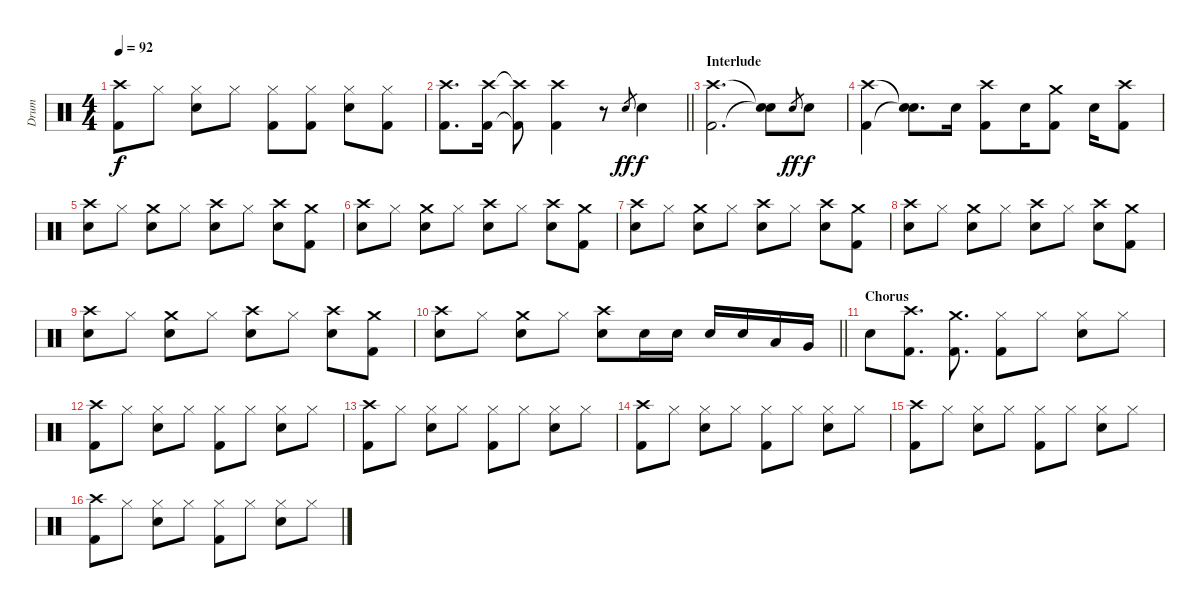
\track ("Drum" "Drum") {instrument percussion}
\staff {score}
\articulation defaults
\ts (4 4)
\tempo 92
\clef neutral
\ks c
("Crash high (hit)" "Kick (hit) 2").8{dy f} "Hi-Hat (closed)".8 ("Hi-Hat (closed)" "Snare (hit) 2").8 "Hi-Hat (closed)".8 ("Hi-Hat (closed)" "Kick (hit) 2").8 ("Hi-Hat (closed)" "Kick (hit) 2").8 ("Hi-Hat (closed)" "Snare (hit) 2").8 ("Hi-Hat (closed)" "Kick (hit) 2").8 |
\barLineRight lightlight
("Crash high (hit)" "Kick (hit) 2").8{d} ("Crash high (hit)" "Kick (hit) 2").16 ("Crash high (hit)"{t} "Kick (hit) 2"{t}).8 ("Crash high (hit)" "Kick (hit) 2").4 r.8 "Snare (hit) 2".8{gr dy ff} "Snare (hit) 2".4{dy f} |
\section ("" "Interlude")
("Crash high (hit)" "Kick (hit) 2").2{d} ("Snare (hit)"{t} "Snare (hit)"{t}).8 "Snare (hit) 2".8{gr dy ff} "Snare (hit) 2".8{dy f} |
("Crash high (hit)" "Kick (hit) 2").4 ("Snare (hit)"{t} "Snare (hit)"{t}).8{d} "Snare (hit) 2".16 ("Crash high (hit)" "Kick (hit) 2").8 "Snare (hit) 2".16 ("Crash medium (hit)" "Kick (hit) 2").8 "Snare (hit) 2".16 ("Crash high (hit)" "Kick (hit) 2").8 |
("Crash high (hit)" "Snare (hit) 2").8 "Hi-Hat (closed)".8 ("Crash medium (hit)" "Snare (hit) 2").8 "Hi-Hat (closed)".8 ("Crash high (hit)" "Snare (hit) 2").8 "Hi-Hat (closed)".8 ("Crash high (hit)" "Snare (hit) 2").8 ("Crash medium (hit)" "Kick (hit) 2").8 |
("Crash high (hit)" "Snare (hit) 2").8 "Hi-Hat (closed)".8 ("Crash medium (hit)" "Snare (hit) 2").8 "Hi-Hat (closed)".8 ("Crash high (hit)" "Snare (hit) 2").8 "Hi-Hat (closed)".8 ("Crash high (hit)" "Snare (hit) 2").8 ("Crash medium (hit)" "Kick (hit) 2").8 |
("Crash high (hit)" "Snare (hit) 2").8 "Hi-Hat (closed)".8 ("Crash medium (hit)" "Snare (hit) 2").8 "Hi-Hat (closed)".8 ("Crash high (hit)" "Snare (hit) 2").8 "Hi-Hat (closed)".8 ("Crash high (hit)" "Snare (hit) 2").8 ("Crash medium (hit)" "Kick (hit) 2").8 |
("Crash high (hit)" "Snare (hit) 2").8 "Hi-Hat (closed)".8 ("Crash medium (hit)" "Snare (hit) 2").8 "Hi-Hat (closed)".8 ("Crash high (hit)" "Snare (hit) 2").8 "Hi-Hat (closed)".8 ("Crash high (hit)" "Snare (hit) 2").8 ("Crash medium (hit)" "Kick (hit) 2").8 |
("Crash high (hit)" "Snare (hit) 2").8 "Hi-Hat (closed)".8 ("Crash medium (hit)" "Snare (hit) 2").8 "Hi-Hat (closed)".8 ("Crash high (hit)" "Snare (hit) 2").8 "Hi-Hat (closed)".8 ("Crash high (hit)" "Snare (hit) 2").8 ("Crash medium (hit)" "Kick (hit) 2").8 |
\barLineRight lightlight
("Crash high (hit)" "Snare (hit) 2").8 "Hi-Hat (closed)".8 ("Crash medium (hit)" "Snare (hit) 2").8 "Hi-Hat (closed)".8 ("Crash high (hit)" "Snare (hit) 2").8 "Snare (hit) 2".16 "Snare (hit) 2".16 "Snare (hit) 2".16 "Snare (hit) 2".16 "Low Tom (hit)".16 "Very Low Tom (hit)".16 |
\section ("" "Chorus")
"Snare (hit) 2".8 ("Crash high (hit)" "Kick (hit) 2").8{d} ("Crash medium (hit)" "Kick (hit) 2").8{d} ("Hi-Hat (closed)" "Kick (hit) 2").8 "Hi-Hat (closed)".8 ("Hi-Hat (closed)" "Snare (hit) 2").8 "Hi-Hat (closed)".8 |
("Crash high (hit)" "Kick (hit) 2").8 "Hi-Hat (closed)".8 ("Hi-Hat (closed)" "Snare (hit) 2").8 "Hi-Hat (closed)".8 ("Hi-Hat (closed)" "Kick (hit) 2").8 "Hi-Hat (closed)".8 ("Hi-Hat (closed)" "Snare (hit) 2").8 "Hi-Hat (closed)".8 |
("Crash high (hit)" "Kick (hit) 2").8 "Hi-Hat (closed)".8 ("Hi-Hat (closed)" "Snare (hit) 2").8 "Hi-Hat (closed)".8 ("Hi-Hat (closed)" "Kick (hit) 2").8 "Hi-Hat (closed)".8 ("Hi-Hat (closed)" "Snare (hit) 2").8 "Hi-Hat (closed)".8 |
("Crash high (hit)" "Kick (hit) 2").8 "Hi-Hat (closed)".8 ("Hi-Hat (closed)" "Snare (hit) 2").8 "Hi-Hat (closed)".8 ("Hi-Hat (closed)" "Kick (hit) 2").8 "Hi-Hat (closed)".8 ("Hi-Hat (closed)" "Snare (hit) 2").8 "Hi-Hat (closed)".8 |
("Crash high (hit)" "Kick (hit) 2").8 "Hi-Hat (closed)".8 ("Hi-Hat (closed)" "Snare (hit) 2").8 "Hi-Hat (closed)".8 ("Hi-Hat (closed)" "Kick (hit) 2").8 "Hi-Hat (closed)".8 ("Hi-Hat (closed)" "Snare (hit) 2").8 "Hi-Hat (closed)".8 |
("Crash high (hit)" "Kick (hit) 2").8 "Hi-Hat (closed)".8 ("Hi-Hat (closed)" "Snare (hit) 2").8 "Hi-Hat (closed)".8 ("Hi-Hat (closed)" "Kick (hit) 2").8 "Hi-Hat (closed)".8 ("Hi-Hat (closed)" "Snare (hit) 2").8 "Hi-Hat (closed)".8
